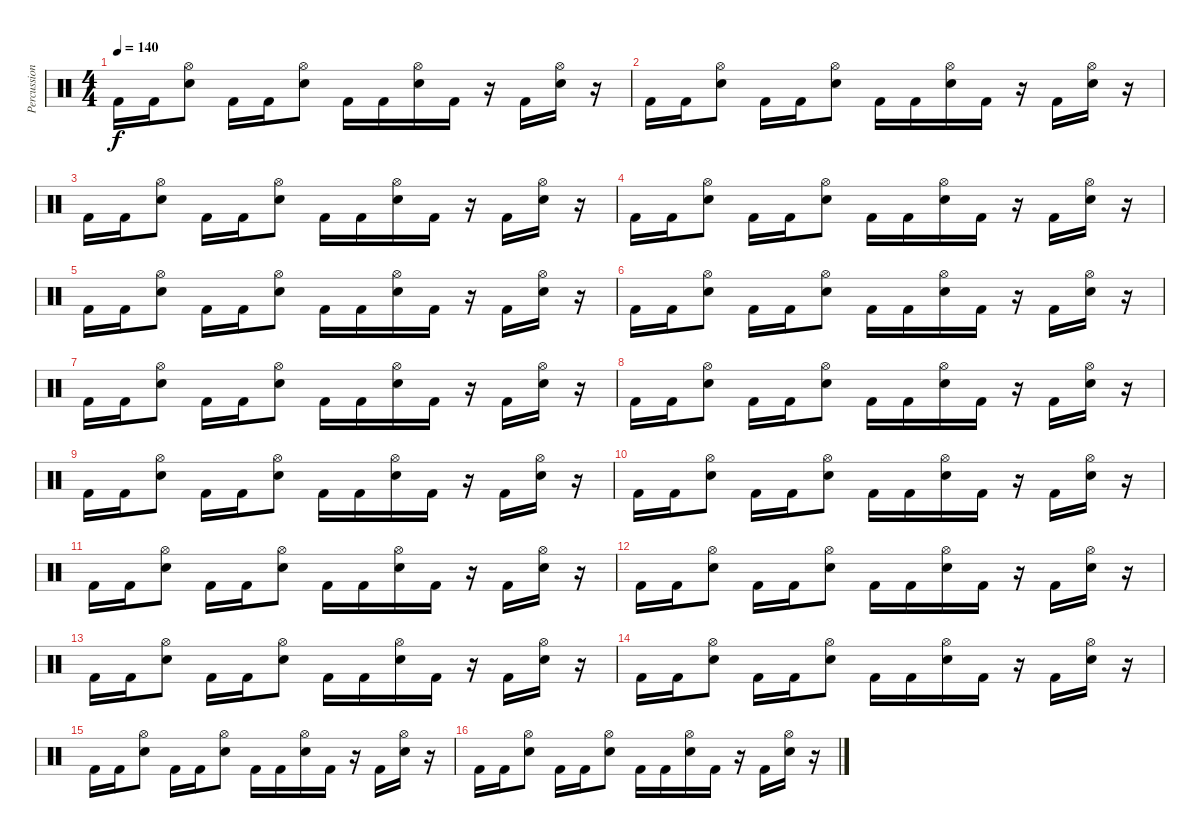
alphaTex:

\track ("Percussions" "Percussion") {instrument percussion}
\staff {score}
\articulation defaults
\ts (4 4)
\tempo 140
\clef neutral
\ks c "Kick (hit) 2".16{dy f} "Kick (hit) 2".16
("Hi-Hat (open)" "Snare (hit) 2").8 "Kick (hit) 2".16 "Kick (hit) 2".16 ("Hi-Hat (open)" "Snare (hit) 2").8 "Kick (hit) 2".16 "Kick (hit) 2".16 ("Hi-Hat (open)" "Snare (hit) 2").16 "Kick (hit) 2".16 r.16 "Kick (hit) 2".16 ("Hi-Hat (open)" "Snare (hit) 2").16 r.16 |
"Kick (hit) 2".16 "Kick (hit) 2".16 ("Hi-Hat (open)" "Snare (hit) 2").8 "Kick (hit) 2".16 "Kick (hit) 2".16 ("Hi-Hat (open)" "Snare (hit) 2").8 "Kick (hit) 2".16 "Kick (hit) 2".16 ("Hi-Hat (open)" "Snare (hit) 2").16 "Kick (hit) 2".16 r.16 "Kick (hit) 2".16 ("Hi-Hat (open)" "Snare (hit) 2").16 r.16 |
"Kick (hit) 2".16 "Kick (hit) 2".16 ("Hi-Hat (open)" "Snare (hit) 2").8 "Kick (hit) 2".16 "Kick (hit) 2".16 ("Hi-Hat (open)" "Snare (hit) 2").8 "Kick (hit) 2".16 "Kick (hit) 2".16 ("Hi-Hat (open)" "Snare (hit) 2").16 "Kick (hit) 2".16 r.16 "Kick (hit) 2".16 ("Hi-Hat (open)" "Snare (hit) 2").16 r.16 |
"Kick (hit) 2".16 "Kick (hit) 2".16 ("Hi-Hat (open)" "Snare (hit) 2").8 "Kick (hit) 2".16 "Kick (hit) 2".16 ("Hi-Hat (open)" "Snare (hit) 2").8 "Kick (hit) 2".16 "Kick (hit) 2".16 ("Hi-Hat (open)" "Snare (hit) 2").16 "Kick (hit) 2".16 r.16 "Kick (hit) 2".16 ("Hi-Hat (open)" "Snare (hit) 2").16 r.16 |
"Kick (hit) 2".16 "Kick (hit) 2".16 ("Hi-Hat (open)" "Snare (hit) 2").8 "Kick (hit) 2".16 "Kick (hit) 2".16 ("Hi-Hat (open)" "Snare (hit) 2").8 "Kick (hit) 2".16 "Kick (hit) 2".16 ("Hi-Hat (open)" "Snare (hit) 2").16 "Kick (hit) 2".16 r.16 "Kick (hit) 2".16 ("Hi-Hat (open)" "Snare (hit) 2").16 r.16 |
"Kick (hit) 2".16 "Kick (hit) 2".16 ("Hi-Hat (open)" "Snare (hit) 2").8 "Kick (hit) 2".16 "Kick (hit) 2".16 ("Hi-Hat (open)" "Snare (hit) 2").8 "Kick (hit) 2".16 "Kick (hit) 2".16 ("Hi-Hat (open)" "Snare (hit) 2").16 "Kick (hit) 2".16 r.16 "Kick (hit) 2".16 ("Hi-Hat (open)" "Snare (hit) 2").16 r.16 |
"Kick (hit) 2".16 "Kick (hit) 2".16 ("Hi-Hat (open)" "Snare (hit) 2").8 "Kick (hit) 2".16 "Kick (hit) 2".16 ("Hi-Hat (open)" "Snare (hit) 2").8 "Kick (hit) 2".16 "Kick (hit) 2".16 ("Hi-Hat (open)" "Snare (hit) 2").16 "Kick (hit) 2".16 r.16 "Kick (hit) 2".16 ("Hi-Hat (open)" "Snare (hit) 2").16 r.16 |
"Kick (hit) 2".16 "Kick (hit) 2".16 ("Hi-Hat (open)" "Snare (hit) 2").8 "Kick (hit) 2".16 "Kick (hit) 2".16 ("Hi-Hat (open)" "Snare (hit) 2").8 "Kick (hit) 2".16 "Kick (hit) 2".16 ("Hi-Hat (open)" "Snare (hit) 2").16 "Kick (hit) 2".16 r.16 "Kick (hit) 2".16 ("Hi-Hat (open)" "Snare (hit) 2").16 r.16 |
"Kick (hit) 2".16 "Kick (hit) 2".16 ("Hi-Hat (open)" "Snare (hit) 2").8 "Kick (hit) 2".16 "Kick (hit) 2".16 ("Hi-Hat (open)" "Snare (hit) 2").8 "Kick (hit) 2".16 "Kick (hit) 2".16 ("Hi-Hat (open)" "Snare (hit) 2").16 "Kick (hit) 2".16 r.16 "Kick (hit) 2".16 ("Hi-Hat (open)" "Snare (hit) 2").16 r.16 |
"Kick (hit) 2".16 "Kick (hit) 2".16 ("Hi-Hat (open)" "Snare (hit) 2").8 "Kick (hit) 2".16 "Kick (hit) 2".16 ("Hi-Hat (open)" "Snare (hit) 2").8 "Kick (hit) 2".16 "Kick (hit) 2".16 ("Hi-Hat (open)" "Snare (hit) 2").16 "Kick (hit) 2".16 r.16 "Kick (hit) 2".16 ("Hi-Hat (open)" "Snare (hit) 2").16 r.16 |
"Kick (hit) 2".16 "Kick (hit) 2".16 ("Hi-Hat (open)" "Snare (hit) 2").8 "Kick (hit) 2".16 "Kick (hit) 2".16 ("Hi-Hat (open)" "Snare (hit) 2").8 "Kick (hit) 2".16 "Kick (hit) 2".16 ("Hi-Hat (open)" "Snare (hit) 2").16 "Kick (hit) 2".16 r.16 "Kick (hit) 2".16 ("Hi-Hat (open)" "Snare (hit) 2").16 r.16 |
"Kick (hit) 2".16 "Kick (hit) 2".16 ("Hi-Hat (open)" "Snare (hit) 2").8 "Kick (hit) 2".16 "Kick (hit) 2".16 ("Hi-Hat (open)" "Snare (hit) 2").8 "Kick (hit) 2".16 "Kick (hit) 2".16 ("Hi-Hat (open)" "Snare (hit) 2").16 "Kick (hit) 2".16 r.16 "Kick (hit) 2".16 ("Hi-Hat (open)" "Snare (hit) 2").16 r.16 |
"Kick (hit) 2".16 "Kick (hit) 2".16 ("Hi-Hat (open)" "Snare (hit) 2").8 "Kick (hit) 2".16 "Kick (hit) 2".16 ("Hi-Hat (open)" "Snare (hit) 2").8 "Kick (hit) 2".16 "Kick (hit) 2".16 ("Hi-Hat (open)" "Snare (hit) 2").16 "Kick (hit) 2".16 r.16 "Kick (hit) 2".16 ("Hi-Hat (open)" "Snare (hit) 2").16 r.16 |
"Kick (hit) 2".16 "Kick (hit) 2".16 ("Hi-Hat (open)" "Snare (hit) 2").8 "Kick (hit) 2".16 "Kick (hit) 2".16 ("Hi-Hat (open)" "Snare (hit) 2").8 "Kick (hit) 2".16 "Kick (hit) 2".16 ("Hi-Hat (open)" "Snare (hit) 2").16 "Kick (hit) 2".16 r.16 "Kick (hit) 2".16 ("Hi-Hat (open)" "Snare (hit) 2").16 r.16 |
"Kick (hit) 2".16 "Kick (hit) 2".16 ("Hi-Hat (open)" "Snare (hit) 2").8 "Kick (hit) 2".16 "Kick (hit) 2".16 ("Hi-Hat (open)" "Snare (hit) 2").8 "Kick (hit) 2".16 "Kick (hit) 2".16 ("Hi-Hat (open)" "Snare (hit) 2").16 "Kick (hit) 2".16 r.16 "Kick (hit) 2".16 ("Hi-Hat (open)" "Snare (hit) 2").16 r.16 |
"Kick (hit) 2".16 "Kick (hit) 2".16 ("Hi-Hat (open)" "Snare (hit) 2").8 "Kick (hit) 2".16 "Kick (hit) 2".16 ("Hi-Hat (open)" "Snare (hit) 2").8 "Kick (hit) 2".16 "Kick (hit) 2".16 ("Hi-Hat (open)" "Snare (hit) 2").16 "Kick (hit) 2".16 r.16 "Kick (hit) 2".16 ("Hi-Hat (open)" "Snare (hit) 2").16 r.16
